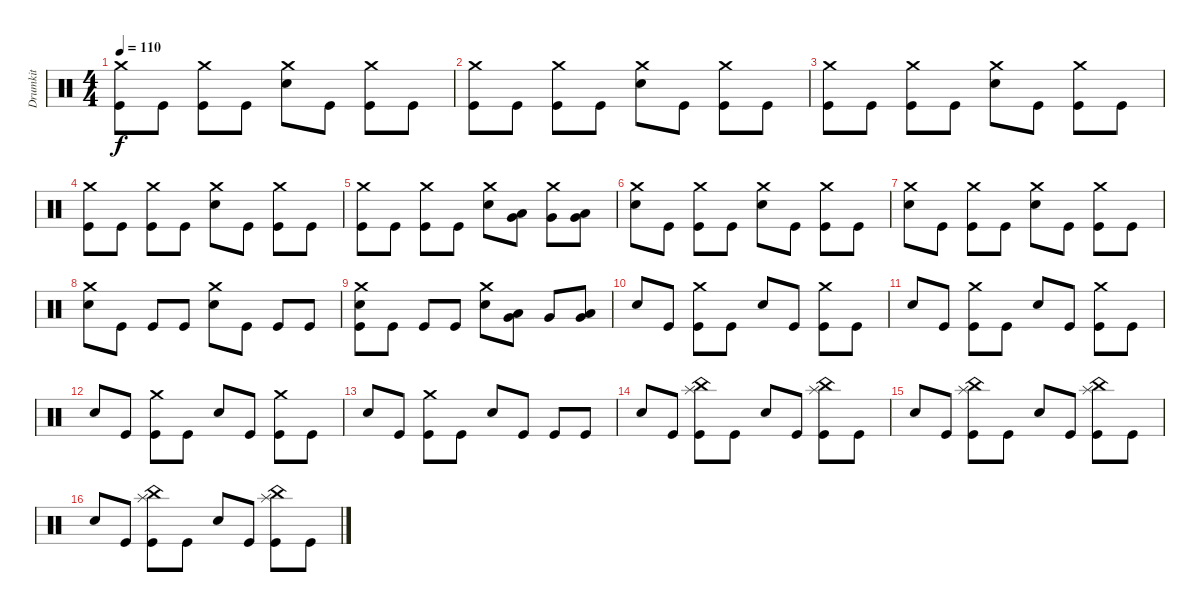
\track ("Drumkit" "Drumkit") {instrument percussion}
\staff {score}
\articulation defaults
\ts (4 4)
\tempo 110
\clef neutral
\ks c
("Crash medium (hit)" "Kick (hit)").8{dy f} "Kick (hit)".8 ("Crash medium (hit)" "Kick (hit)").8 "Kick (hit)".8 ("Crash medium (hit)" "Snare (hit) 2").8 "Kick (hit)".8 ("Crash medium (hit)" "Kick (hit)").8 "Kick (hit)".8 |
("Crash medium (hit)" "Kick (hit)").8 "Kick (hit)".8 ("Crash medium (hit)" "Kick (hit)").8 "Kick (hit)".8 ("Crash medium (hit)" "Snare (hit) 2").8 "Kick (hit)".8 ("Crash medium (hit)" "Kick (hit)").8 "Kick (hit)".8 |
("Crash medium (hit)" "Kick (hit)").8 "Kick (hit)".8 ("Crash medium (hit)" "Kick (hit)").8 "Kick (hit)".8 ("Crash medium (hit)" "Snare (hit) 2").8 "Kick (hit)".8 ("Crash medium (hit)" "Kick (hit)").8 "Kick (hit)".8 |
("Crash medium (hit)" "Kick (hit)").8 "Kick (hit)".8 ("Crash medium (hit)" "Kick (hit)").8 "Kick (hit)".8 ("Crash medium (hit)" "Snare (hit) 2").8 "Kick (hit)".8 ("Crash medium (hit)" "Kick (hit)").8 "Kick (hit)".8 |
("Crash medium (hit)" "Kick (hit)").8 "Kick (hit)".8 ("Crash medium (hit)" "Kick (hit)").8 "Kick (hit)".8 ("Crash medium (hit)" "Snare (hit) 2").8 ("Low Tom (hit)" "Very Low Tom (hit)").8 ("Crash medium (hit)" "Very Low Tom (hit)").8 ("Very Low Tom (hit)" "Low Floor Tom (hit)").8 |
("Crash medium (hit)" "Snare (hit) 2").8 "Kick (hit)".8 ("Crash medium (hit)" "Kick (hit)").8 "Kick (hit)".8 ("Crash medium (hit)" "Snare (hit) 2").8 "Kick (hit)".8 ("Crash medium (hit)" "Kick (hit)").8 "Kick (hit)".8 |
("Crash medium (hit)" "Snare (hit) 2").8 "Kick (hit)".8 ("Crash medium (hit)" "Kick (hit)").8 "Kick (hit)".8 ("Crash medium (hit)" "Snare (hit) 2").8 "Kick (hit)".8 ("Crash medium (hit)" "Kick (hit)").8 "Kick (hit)".8 |
("Crash medium (hit)" "Snare (hit) 2").8 "Kick (hit)".8 "Kick (hit)".8 "Kick (hit)".8 ("Crash medium (hit)" "Snare (hit) 2").8 "Kick (hit)".8 "Kick (hit)".8 "Kick (hit)".8 |
("Crash medium (hit)" "Snare (hit) 2" "Kick (hit)").8 "Kick (hit)".8 "Kick (hit)".8 "Kick (hit)".8 ("Crash medium (hit)" "Snare (hit) 2").8 ("Low Tom (hit)" "Very Low Tom (hit)").8 "Very Low Tom (hit)".8 ("Very Low Tom (hit)" "Low Floor Tom (hit)").8 |
"Snare (hit) 2".8 "Kick (hit)".8 ("Crash medium (hit)" "Kick (hit)").8 "Kick (hit)".8 "Snare (hit) 2".8 "Kick (hit)".8 ("Crash medium (hit)" "Kick (hit)").8 "Kick (hit)".8 |
"Snare (hit) 2".8 "Kick (hit)".8 ("Crash medium (hit)" "Kick (hit)").8 "Kick (hit)".8 "Snare (hit) 2".8 "Kick (hit)".8 ("Crash medium (hit)" "Kick (hit)").8 "Kick (hit)".8 |
"Snare (hit) 2".8 "Kick (hit)".8 ("Crash medium (hit)" "Kick (hit)").8 "Kick (hit)".8 "Snare (hit) 2".8 "Kick (hit)".8 ("Crash medium (hit)" "Kick (hit)").8 "Kick (hit)".8 |
"Snare (hit) 2".8 "Kick (hit)".8 ("Crash medium (hit)" "Kick (hit)").8 "Kick (hit)".8 "Snare (hit) 2".8 "Kick (hit)".8 "Kick (hit)".8 "Kick (hit)".8 |
"Snare (hit) 2".8 "Kick (hit)".8 ("Splash (hit)" "China (hit)" "Kick (hit)").8 "Kick (hit)".8 "Snare (hit) 2".8 "Kick (hit)".8 ("Splash (hit)" "China (hit)" "Kick (hit)").8 "Kick (hit)".8 |
"Snare (hit) 2".8 "Kick (hit)".8 ("Splash (hit)" "China (hit)" "Kick (hit)").8 "Kick (hit)".8 "Snare (hit) 2".8 "Kick (hit)".8 ("Splash (hit)" "China (hit)" "Kick (hit)").8 "Kick (hit)".8 |
"Snare (hit) 2".8 "Kick (hit)".8 ("Splash (hit)" "China (hit)" "Kick (hit)").8 "Kick (hit)".8 "Snare (hit) 2".8 "Kick (hit)".8 ("Splash (hit)" "China (hit)" "Kick (hit)").8 "Kick (hit)".8
